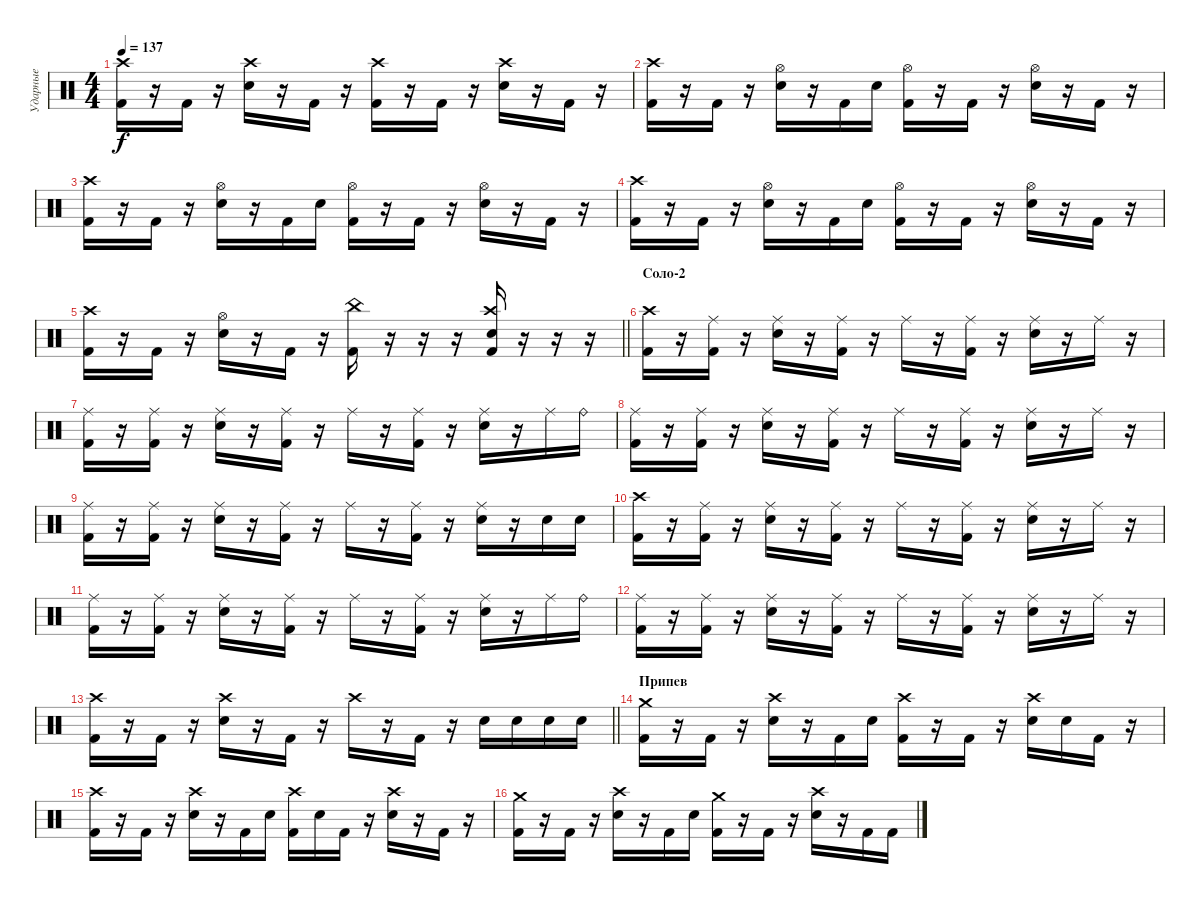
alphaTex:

\track ("Ударные" "Ударные") {instrument percussion}
\staff {score}
\articulation defaults
\ts (4 4)
\tempo 137
\clef neutral
\ks c
("Kick (hit) 2" "Crash high (hit)").16{dy f} r.16 "Kick (hit) 2".16 r.16 ("Snare (hit) 2" "Crash high (hit)").16 r.16 "Kick (hit) 2".16 r.16 ("Kick (hit) 2" "Crash high (hit)").16 r.16 "Kick (hit) 2".16 r.16 ("Snare (hit) 2" "Crash high (hit)").16 r.16 "Kick (hit) 2".16 r.16 |
("Kick (hit) 2" "Crash high (hit)").16 r.16 "Kick (hit) 2".16 r.16 ("Snare (hit) 2" "Hi-Hat (open)").16 r.16 "Kick (hit) 2".16 "Snare (hit) 2".16 ("Kick (hit) 2" "Hi-Hat (open)").16 r.16 "Kick (hit) 2".16 r.16 ("Snare (hit) 2" "Hi-Hat (open)").16 r.16 "Kick (hit) 2".16 r.16 |
("Kick (hit) 2" "Crash high (hit)").16 r.16 "Kick (hit) 2".16 r.16 ("Snare (hit) 2" "Hi-Hat (open)").16 r.16 "Kick (hit) 2".16 "Snare (hit) 2".16 ("Kick (hit) 2" "Hi-Hat (open)").16 r.16 "Kick (hit) 2".16 r.16 ("Snare (hit) 2" "Hi-Hat (open)").16 r.16 "Kick (hit) 2".16 r.16 |
("Kick (hit) 2" "Crash high (hit)").16 r.16 "Kick (hit) 2".16 r.16 ("Snare (hit) 2" "Hi-Hat (open)").16 r.16 "Kick (hit) 2".16 "Snare (hit) 2".16 ("Kick (hit) 2" "Hi-Hat (open)").16 r.16 "Kick (hit) 2".16 r.16 ("Snare (hit) 2" "Hi-Hat (open)").16 r.16 "Kick (hit) 2".16 r.16 |
\barLineRight lightlight
("Kick (hit) 2" "Crash high (hit)").16 r.16 "Kick (hit) 2".16 r.16 ("Snare (hit) 2" "Hi-Hat (open)").16 r.16 "Kick (hit) 2".16 r.16 ("Kick (hit) 2" "China (hit)").16 r.16 r.16 r.16 ("Kick (hit) 2" "Snare (hit) 2" "Crash high (hit)").16 r.16 r.16 r.16 |
\section ("" "Соло-2")
("Kick (hit) 2" "Crash high (hit)").16 r.16 ("Kick (hit) 2" "Ride (middle)").16 r.16 ("Snare (hit) 2" "Ride (middle)").16 r.16 ("Kick (hit) 2" "Ride (middle)").16 r.16 "Ride (middle)".16 r.16 ("Kick (hit) 2" "Ride (middle)").16 r.16 ("Snare (hit) 2" "Ride (middle)").16 r.16 "Ride (middle)".16 r.16 |
("Kick (hit) 2" "Ride (middle)").16 r.16 ("Kick (hit) 2" "Ride (middle)").16 r.16 ("Snare (hit) 2" "Ride (middle)").16 r.16 ("Kick (hit) 2" "Ride (middle)").16 r.16 "Ride (middle)".16 r.16 ("Kick (hit) 2" "Ride (middle)").16 r.16 ("Snare (hit) 2" "Ride (middle)").16 r.16 "Ride (middle)".16 "Ride (bell)".16 |
("Kick (hit) 2" "Ride (middle)").16 r.16 ("Kick (hit) 2" "Ride (middle)").16 r.16 ("Snare (hit) 2" "Ride (middle)").16 r.16 ("Kick (hit) 2" "Ride (middle)").16 r.16 "Ride (middle)".16 r.16 ("Kick (hit) 2" "Ride (middle)").16 r.16 ("Snare (hit) 2" "Ride (middle)").16 r.16 "Ride (middle)".16 r.16 |
("Kick (hit) 2" "Ride (middle)").16 r.16 ("Kick (hit) 2" "Ride (middle)").16 r.16 ("Snare (hit) 2" "Ride (middle)").16 r.16 ("Kick (hit) 2" "Ride (middle)").16 r.16 "Ride (middle)".16 r.16 ("Kick (hit) 2" "Ride (middle)").16 r.16 ("Snare (hit) 2" "Ride (middle)").16 r.16 "Snare (hit) 2".16 "Snare (hit) 2".16 |
("Kick (hit) 2" "Crash high (hit)").16 r.16 ("Kick (hit) 2" "Ride (middle)").16 r.16 ("Snare (hit) 2" "Ride (middle)").16 r.16 ("Kick (hit) 2" "Ride (middle)").16 r.16 "Ride (middle)".16 r.16 ("Kick (hit) 2" "Ride (middle)").16 r.16 ("Snare (hit) 2" "Ride (middle)").16 r.16 "Ride (middle)".16 r.16 |
("Kick (hit) 2" "Ride (middle)").16 r.16 ("Kick (hit) 2" "Ride (middle)").16 r.16 ("Snare (hit) 2" "Ride (middle)").16 r.16 ("Kick (hit) 2" "Ride (middle)").16 r.16 "Ride (middle)".16 r.16 ("Kick (hit) 2" "Ride (middle)").16 r.16 ("Snare (hit) 2" "Ride (middle)").16 r.16 "Ride (middle)".16 "Ride (bell)".16 |
("Kick (hit) 2" "Ride (middle)").16 r.16 ("Kick (hit) 2" "Ride (middle)").16 r.16 ("Snare (hit) 2" "Ride (middle)").16 r.16 ("Kick (hit) 2" "Ride (middle)").16 r.16 "Ride (middle)".16 r.16 ("Kick (hit) 2" "Ride (middle)").16 r.16 ("Snare (hit) 2" "Ride (middle)").16 r.16 "Ride (middle)".16 r.16 |
\barLineRight lightlight
("Kick (hit) 2" "Crash high (hit)").16 r.16 "Kick (hit) 2".16 r.16 ("Snare (hit) 2" "Crash high (hit)").16 r.16 "Kick (hit) 2".16 r.16 "Crash high (hit)".16 r.16 "Kick (hit) 2".16 r.16 "Snare (hit) 2".16 "Snare (hit) 2".16 "Snare (hit) 2".16 "Snare (hit) 2".16 |
\section ("" "Припев")
("Kick (hit) 2" "Crash medium (hit)").16 r.16 "Kick (hit) 2".16 r.16 ("Snare (hit) 2" "Crash high (hit)").16 r.16 "Kick (hit) 2".16 "Snare (hit) 2".16 ("Kick (hit) 2" "Crash high (hit)").16 r.16 "Kick (hit) 2".16 r.16 ("Snare (hit) 2" "Crash high (hit)").16 "Snare (hit) 2".16 "Kick (hit) 2".16 r.16 |
("Kick (hit) 2" "Crash high (hit)").16 r.16 "Kick (hit) 2".16 r.16 ("Snare (hit) 2" "Crash high (hit)").16 r.16 "Kick (hit) 2".16 "Snare (hit) 2".16 ("Kick (hit) 2" "Crash high (hit)").16 "Snare (hit) 2".16 "Kick (hit) 2".16 r.16 ("Snare (hit) 2" "Crash high (hit)").16 r.16 "Kick (hit) 2".16 r.16 |
("Kick (hit) 2" "Crash medium (hit)").16 r.16 "Kick (hit) 2".16 r.16 ("Snare (hit) 2" "Crash high (hit)").16 r.16 "Kick (hit) 2".16 "Snare (hit) 2".16 ("Kick (hit) 2" "Crash medium (hit)").16 r.16 "Kick (hit) 2".16 r.16 ("Snare (hit) 2" "Crash high (hit)").16 r.16 "Kick (hit) 2".16 "Kick (hit) 2".16
